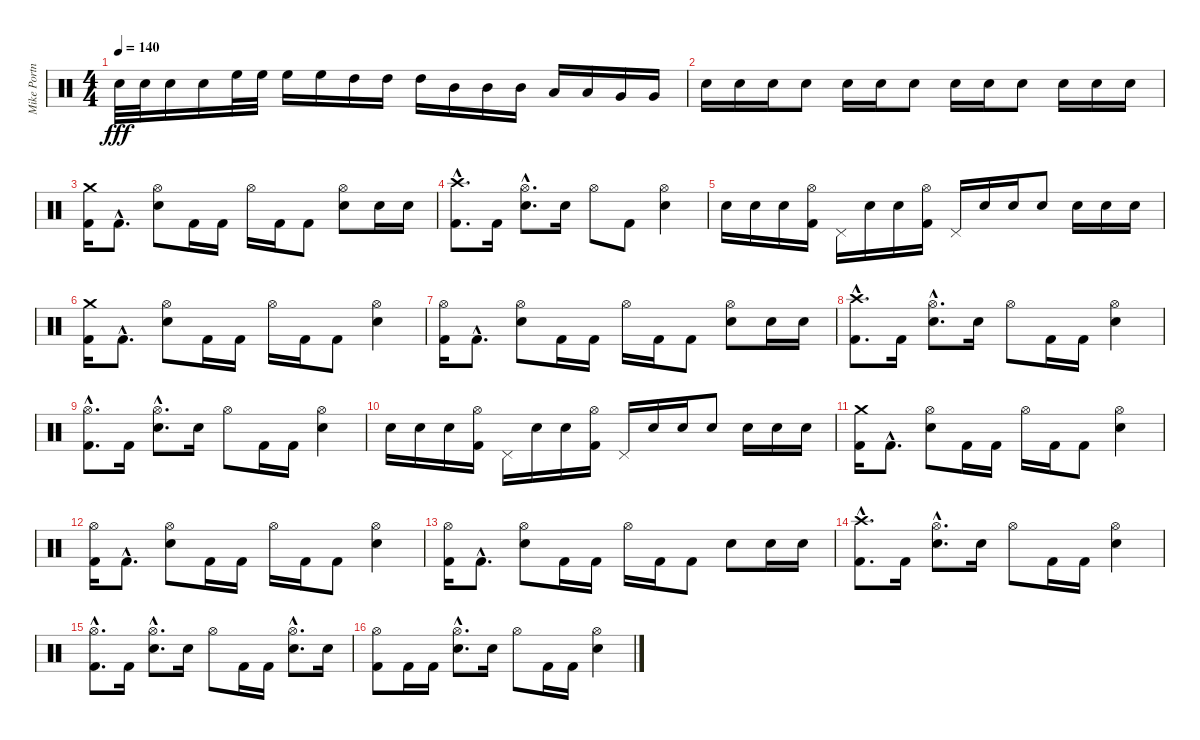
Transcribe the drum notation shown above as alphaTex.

\track ("Mike Portnoy - Drum" "Mike Portn") {instrument percussion}
\staff {score}
\articulation defaults
\ts (4 4)
\tempo 140
\clef neutral
\ks c "Snare (hit) 2".32{dy fff} "Snare (hit) 2".32 "Snare (hit) 2".16 "Snare (hit) 2".16 "High Floor Tom (hit)".32 "High Floor Tom (hit)".32 "High Floor Tom (hit)".16 "High Floor Tom (hit)".16 "High Tom (hit)".16 "High Tom (hit)".16 "High Tom (hit)".16 "Mid Tom (hit)".16 "Mid Tom (hit)".16 "Mid Tom (hit)".16 "Low Tom (hit)".16 "Low Tom (hit)".16 "Very Low Tom (hit)".16 "Very Low Tom (hit)".16
|
"Snare (hit) 2".16 "Snare (hit) 2".16 "Snare (hit) 2".16 "Snare (hit) 2".8 "Snare (hit) 2".16 "Snare (hit) 2".16 "Snare (hit) 2".8 "Snare (hit) 2".16 "Snare (hit) 2".16 "Snare (hit) 2".8 "Snare (hit) 2".16 "Snare (hit) 2".16 "Snare (hit) 2".16 |
("Crash medium (hit)" "Kick (hit) 2").16 "Kick (hit) 2"{hac}.8{d} ("Hi-Hat (open)" "Snare (hit) 2").8 "Kick (hit) 2".16 "Kick (hit) 2".16 "Hi-Hat (open)".16 "Kick (hit) 2".16 "Kick (hit) 2".8 ("Hi-Hat (open)" "Snare (hit) 2").8 "Snare (hit) 2".16 "Snare (hit) 2".16 |
("Crash high (hit)"{hac} "Kick (hit) 2"{hac}).8{d} "Kick (hit) 2".16 ("Hi-Hat (open)"{hac} "Snare (hit) 2"{hac}).8{d} "Snare (hit) 2".16 "Hi-Hat (open)".8 "Kick (hit) 2".8 ("Hi-Hat (open)" "Snare (hit) 2").4 |
"Snare (hit) 2".16 "Snare (hit) 2".16 "Snare (hit) 2".16 ("Hi-Hat (open)" "Kick (hit) 2").16 "Pedal Hi-Hat (hit)".16 "Snare (hit) 2".16 "Snare (hit) 2".16 ("Hi-Hat (open)" "Kick (hit) 2").16 "Pedal Hi-Hat (hit)".16 "Snare (hit) 2".16 "Snare (hit) 2".16 "Snare (hit) 2".8 "Snare (hit) 2".16 "Snare (hit) 2".16 "Snare (hit) 2".16 |
("Crash medium (hit)" "Kick (hit) 2").16 "Kick (hit) 2"{hac}.8{d} ("Hi-Hat (open)" "Snare (hit) 2").8 "Kick (hit) 2".16 "Kick (hit) 2".16 "Hi-Hat (open)".16 "Kick (hit) 2".16 "Kick (hit) 2".8 ("Hi-Hat (open)" "Snare (hit) 2").4 |
("Hi-Hat (open)" "Kick (hit) 2").16 "Kick (hit) 2"{hac}.8{d} ("Hi-Hat (open)" "Snare (hit) 2").8 "Kick (hit) 2".16 "Kick (hit) 2".16 "Hi-Hat (open)".16 "Kick (hit) 2".16 "Kick (hit) 2".8 ("Hi-Hat (open)" "Snare (hit) 2").8 "Snare (hit) 2".16 "Snare (hit) 2".16 |
("Crash high (hit)"{hac} "Kick (hit) 2"{hac}).8{d} "Kick (hit) 2".16 ("Hi-Hat (open)"{hac} "Snare (hit) 2"{hac}).8{d} "Snare (hit) 2".16 "Hi-Hat (open)".8 "Kick (hit) 2".16 "Kick (hit) 2".16 ("Hi-Hat (open)" "Snare (hit) 2").4 |
("Hi-Hat (open)"{hac} "Kick (hit) 2"{hac}).8{d} "Kick (hit) 2".16 ("Hi-Hat (open)"{hac} "Snare (hit) 2"{hac}).8{d} "Snare (hit) 2".16 "Hi-Hat (open)".8 "Kick (hit) 2".16 "Kick (hit) 2".16 ("Hi-Hat (open)" "Snare (hit) 2").4 |
"Snare (hit) 2".16 "Snare (hit) 2".16 "Snare (hit) 2".16 ("Hi-Hat (open)" "Kick (hit) 2").16 "Pedal Hi-Hat (hit)".16 "Snare (hit) 2".16 "Snare (hit) 2".16 ("Hi-Hat (open)" "Kick (hit) 2").16 "Pedal Hi-Hat (hit)".16 "Snare (hit) 2".16 "Snare (hit) 2".16 "Snare (hit) 2".8 "Snare (hit) 2".16 "Snare (hit) 2".16 "Snare (hit) 2".16 |
("Crash medium (hit)" "Kick (hit) 2").16 "Kick (hit) 2"{hac}.8{d} ("Hi-Hat (open)" "Snare (hit) 2").8 "Kick (hit) 2".16 "Kick (hit) 2".16 "Hi-Hat (open)".16 "Kick (hit) 2".16 "Kick (hit) 2".8 ("Hi-Hat (open)" "Snare (hit) 2").4 |
("Hi-Hat (open)" "Kick (hit) 2").16 "Kick (hit) 2"{hac}.8{d} ("Hi-Hat (open)" "Snare (hit) 2").8 "Kick (hit) 2".16 "Kick (hit) 2".16 "Hi-Hat (open)".16 "Kick (hit) 2".16 "Kick (hit) 2".8 ("Hi-Hat (open)" "Snare (hit) 2").4 |
("Hi-Hat (open)" "Kick (hit) 2").16 "Kick (hit) 2"{hac}.8{d} ("Hi-Hat (open)" "Snare (hit) 2").8 "Kick (hit) 2".16 "Kick (hit) 2".16 "Hi-Hat (open)".16 "Kick (hit) 2".16 "Kick (hit) 2".8 "Snare (hit) 2".8 "Snare (hit) 2".16 "Snare (hit) 2".16 |
("Crash high (hit)"{hac} "Kick (hit) 2"{hac}).8{d} "Kick (hit) 2".16 ("Hi-Hat (open)"{hac} "Snare (hit) 2"{hac}).8{d} "Snare (hit) 2".16 "Hi-Hat (open)".8 "Kick (hit) 2".16 "Kick (hit) 2".16 ("Hi-Hat (open)" "Snare (hit) 2").4 |
("Hi-Hat (open)"{hac} "Kick (hit) 2"{hac}).8{d} "Kick (hit) 2".16 ("Hi-Hat (open)"{hac} "Snare (hit) 2"{hac}).8{d} "Snare (hit) 2".16 "Hi-Hat (open)".8 "Kick (hit) 2".16 "Kick (hit) 2".16 ("Hi-Hat (open)"{hac} "Snare (hit) 2"{hac}).8{d} "Snare (hit) 2".16 |
("Hi-Hat (open)" "Kick (hit) 2").8 "Kick (hit) 2".16 "Kick (hit) 2".16 ("Hi-Hat (open)"{hac} "Snare (hit) 2"{hac}).8{d} "Snare (hit) 2".16 "Hi-Hat (open)".8 "Kick (hit) 2".16 "Kick (hit) 2".16 ("Hi-Hat (open)" "Snare (hit) 2").4
